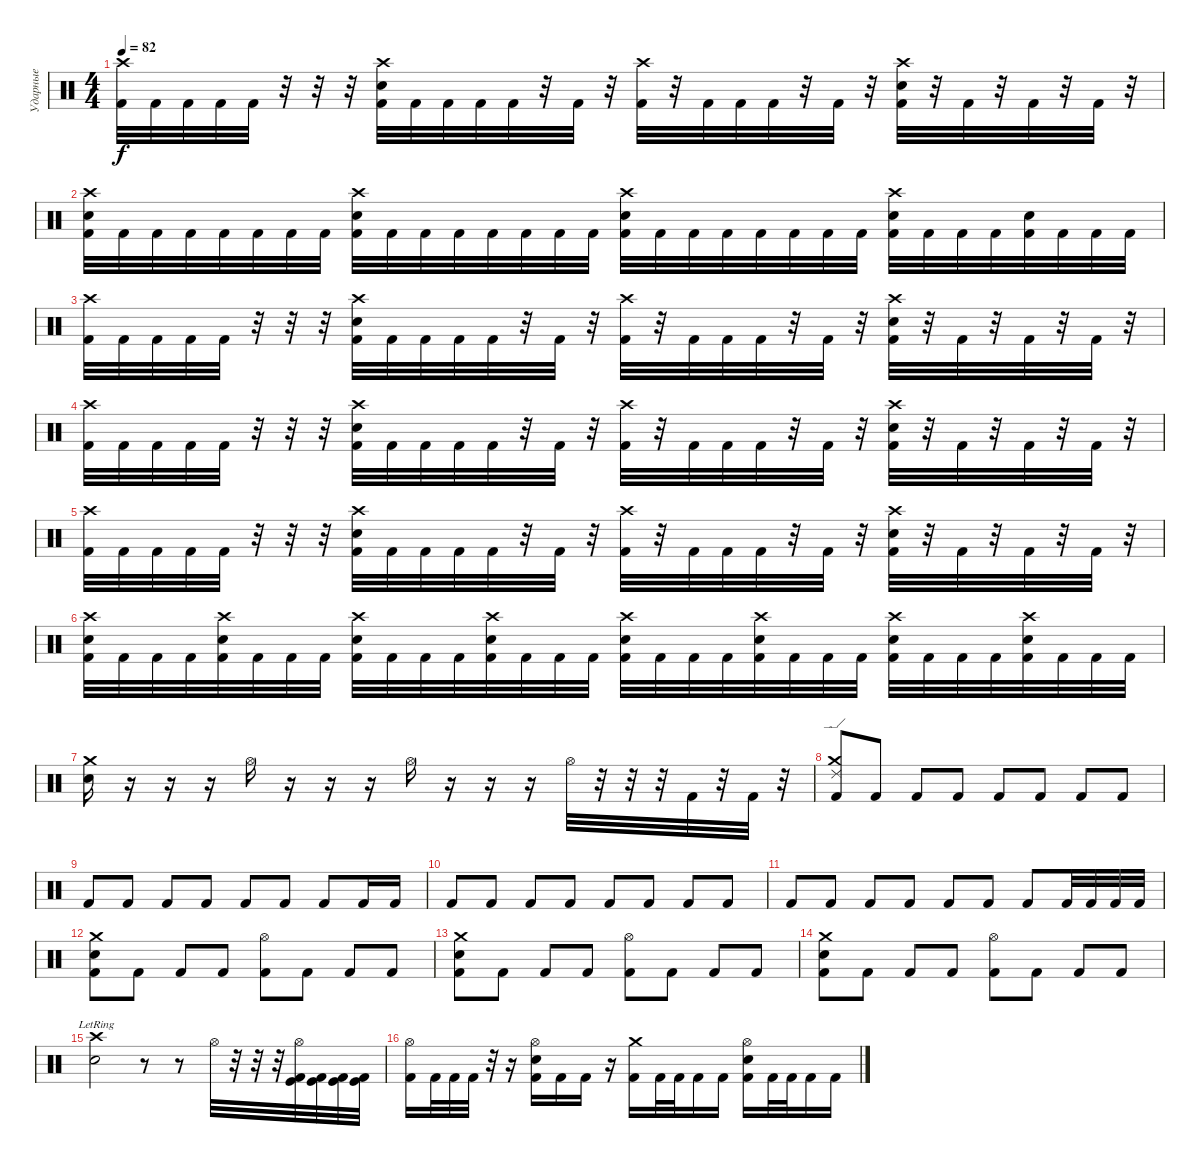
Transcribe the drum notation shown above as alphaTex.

\track ("Ударные" "Ударные") {instrument percussion}
\staff {score}
\articulation defaults
\ts (4 4)
\tempo 82
\clef neutral
\ks c
("Crash high (hit)" "Kick (hit) 2").32{dy f} "Kick (hit) 2".32 "Kick (hit) 2".32 "Kick (hit) 2".32 "Kick (hit) 2".32 r.32 r.32 r.32 ("Crash high (hit)" "Snare (hit) 2" "Kick (hit) 2").32 "Kick (hit) 2".32 "Kick (hit) 2".32 "Kick (hit) 2".32 "Kick (hit) 2".32 r.32 "Kick (hit) 2".32 r.32 ("Crash high (hit)" "Kick (hit) 2").32 r.32 "Kick (hit) 2".32 "Kick (hit) 2".32 "Kick (hit) 2".32 r.32 "Kick (hit) 2".32 r.32 ("Crash high (hit)" "Snare (hit) 2" "Kick (hit) 2").32 r.32 "Kick (hit) 2".32 r.32 "Kick (hit) 2".32 r.32 "Kick (hit) 2".32 r.32 |
("Crash high (hit)" "Snare (hit) 2" "Kick (hit) 2").32 "Kick (hit) 2".32 "Kick (hit) 2".32 "Kick (hit) 2".32 "Kick (hit) 2".32 "Kick (hit) 2".32 "Kick (hit) 2".32 "Kick (hit) 2".32 ("Crash high (hit)" "Snare (hit) 2" "Kick (hit) 2").32 "Kick (hit) 2".32 "Kick (hit) 2".32 "Kick (hit) 2".32 "Kick (hit) 2".32 "Kick (hit) 2".32 "Kick (hit) 2".32 "Kick (hit) 2".32 ("Crash high (hit)" "Snare (hit) 2" "Kick (hit) 2").32 "Kick (hit) 2".32 "Kick (hit) 2".32 "Kick (hit) 2".32 "Kick (hit) 2".32 "Kick (hit) 2".32 "Kick (hit) 2".32 "Kick (hit) 2".32 ("Crash high (hit)" "Snare (hit) 2" "Kick (hit) 2").32 "Kick (hit) 2".32 "Kick (hit) 2".32 "Kick (hit) 2".32 ("Snare (hit) 2" "Kick (hit) 2").32 "Kick (hit) 2".32 "Kick (hit) 2".32 "Kick (hit) 2".32 |
("Crash high (hit)" "Kick (hit) 2").32 "Kick (hit) 2".32 "Kick (hit) 2".32 "Kick (hit) 2".32 "Kick (hit) 2".32 r.32 r.32 r.32 ("Crash high (hit)" "Snare (hit) 2" "Kick (hit) 2").32 "Kick (hit) 2".32 "Kick (hit) 2".32 "Kick (hit) 2".32 "Kick (hit) 2".32 r.32 "Kick (hit) 2".32 r.32 ("Crash high (hit)" "Kick (hit) 2").32 r.32 "Kick (hit) 2".32 "Kick (hit) 2".32 "Kick (hit) 2".32 r.32 "Kick (hit) 2".32 r.32 ("Crash high (hit)" "Snare (hit) 2" "Kick (hit) 2").32 r.32 "Kick (hit) 2".32 r.32 "Kick (hit) 2".32 r.32 "Kick (hit) 2".32 r.32 |
("Crash high (hit)" "Kick (hit) 2").32 "Kick (hit) 2".32 "Kick (hit) 2".32 "Kick (hit) 2".32 "Kick (hit) 2".32 r.32 r.32 r.32 ("Crash high (hit)" "Snare (hit) 2" "Kick (hit) 2").32 "Kick (hit) 2".32 "Kick (hit) 2".32 "Kick (hit) 2".32 "Kick (hit) 2".32 r.32 "Kick (hit) 2".32 r.32 ("Crash high (hit)" "Kick (hit) 2").32 r.32 "Kick (hit) 2".32 "Kick (hit) 2".32 "Kick (hit) 2".32 r.32 "Kick (hit) 2".32 r.32 ("Crash high (hit)" "Snare (hit) 2" "Kick (hit) 2").32 r.32 "Kick (hit) 2".32 r.32 "Kick (hit) 2".32 r.32 "Kick (hit) 2".32 r.32 |
("Crash high (hit)" "Kick (hit) 2").32 "Kick (hit) 2".32 "Kick (hit) 2".32 "Kick (hit) 2".32 "Kick (hit) 2".32 r.32 r.32 r.32 ("Crash high (hit)" "Snare (hit) 2" "Kick (hit) 2").32 "Kick (hit) 2".32 "Kick (hit) 2".32 "Kick (hit) 2".32 "Kick (hit) 2".32 r.32 "Kick (hit) 2".32 r.32 ("Crash high (hit)" "Kick (hit) 2").32 r.32 "Kick (hit) 2".32 "Kick (hit) 2".32 "Kick (hit) 2".32 r.32 "Kick (hit) 2".32 r.32 ("Crash high (hit)" "Snare (hit) 2" "Kick (hit) 2").32 r.32 "Kick (hit) 2".32 r.32 "Kick (hit) 2".32 r.32 "Kick (hit) 2".32 r.32 |
("Crash high (hit)" "Snare (hit) 2" "Kick (hit) 2").32 "Kick (hit) 2".32 "Kick (hit) 2".32 "Kick (hit) 2".32 ("Crash high (hit)" "Snare (hit) 2" "Kick (hit) 2").32 "Kick (hit) 2".32 "Kick (hit) 2".32 "Kick (hit) 2".32 ("Crash high (hit)" "Snare (hit) 2" "Kick (hit) 2").32 "Kick (hit) 2".32 "Kick (hit) 2".32 "Kick (hit) 2".32 ("Crash high (hit)" "Snare (hit) 2" "Kick (hit) 2").32 "Kick (hit) 2".32 "Kick (hit) 2".32 "Kick (hit) 2".32 ("Crash high (hit)" "Snare (hit) 2" "Kick (hit) 2").32 "Kick (hit) 2".32 "Kick (hit) 2".32 "Kick (hit) 2".32 ("Crash high (hit)" "Snare (hit) 2" "Kick (hit) 2").32 "Kick (hit) 2".32 "Kick (hit) 2".32 "Kick (hit) 2".32 ("Crash high (hit)" "Snare (hit) 2" "Kick (hit) 2").32 "Kick (hit) 2".32 "Kick (hit) 2".32 "Kick (hit) 2".32 ("Crash high (hit)" "Snare (hit) 2" "Kick (hit) 2").32 "Kick (hit) 2".32 "Kick (hit) 2".32 "Kick (hit) 2".32 |
("Crash medium (hit)" "Snare (hit) 2").16 r.16 r.16 r.16 "Hi-Hat (open)".16 r.16 r.16 r.16 "Hi-Hat (open)".16 r.16 r.16 r.16 "Hi-Hat (open)".32 r.32 r.32 r.32 "Kick (hit) 2".32 r.32 "Kick (hit) 2".32 r.32 |
("Crash medium (hit)" "Ride (edge) 2" "Kick (hit) 2").8 "Kick (hit) 2".8 "Kick (hit) 2".8 "Kick (hit) 2".8 "Kick (hit) 2".8 "Kick (hit) 2".8 "Kick (hit) 2".8 "Kick (hit) 2".8 |
"Kick (hit) 2".8 "Kick (hit) 2".8 "Kick (hit) 2".8 "Kick (hit) 2".8 "Kick (hit) 2".8 "Kick (hit) 2".8 "Kick (hit) 2".8 "Kick (hit) 2".16 "Kick (hit) 2".16 |
"Kick (hit) 2".8 "Kick (hit) 2".8 "Kick (hit) 2".8 "Kick (hit) 2".8 "Kick (hit) 2".8 "Kick (hit) 2".8 "Kick (hit) 2".8 "Kick (hit) 2".8 |
"Kick (hit) 2".8 "Kick (hit) 2".8 "Kick (hit) 2".8 "Kick (hit) 2".8 "Kick (hit) 2".8 "Kick (hit) 2".8 "Kick (hit) 2".8 "Kick (hit) 2".32 "Kick (hit) 2".32 "Kick (hit) 2".32 "Kick (hit) 2".32 |
("Crash medium (hit)" "Snare (hit) 2" "Kick (hit) 2").8 "Kick (hit) 2".8 "Kick (hit) 2".8 "Kick (hit) 2".8 ("Hi-Hat (open)" "Kick (hit) 2").8 "Kick (hit) 2".8 "Kick (hit) 2".8 "Kick (hit) 2".8 |
("Crash medium (hit)" "Snare (hit) 2" "Kick (hit) 2").8 "Kick (hit) 2".8 "Kick (hit) 2".8 "Kick (hit) 2".8 ("Hi-Hat (open)" "Kick (hit) 2").8 "Kick (hit) 2".8 "Kick (hit) 2".8 "Kick (hit) 2".8 |
("Crash medium (hit)" "Snare (hit) 2" "Kick (hit) 2").8 "Kick (hit) 2".8 "Kick (hit) 2".8 "Kick (hit) 2".8 ("Hi-Hat (open)" "Kick (hit) 2").8 "Kick (hit) 2".8 "Kick (hit) 2".8 "Kick (hit) 2".8 |
("Crash high (hit)"{lr} "Snare (hit) 2").2 r.8 r.8 "Hi-Hat (open)".32 r.32 r.32 r.32 ("Hi-Hat (open)" "Kick (hit) 2" "Kick (hit)").32 ("Kick (hit) 2" "Kick (hit)").32 ("Kick (hit) 2" "Kick (hit)").32 ("Kick (hit) 2" "Kick (hit)").32 |
("Hi-Hat (open)" "Kick (hit) 2").16 "Kick (hit) 2".32 "Kick (hit) 2".32 "Kick (hit) 2".32 r.32 r.16 ("Hi-Hat (open)" "Snare (hit) 2" "Kick (hit) 2").16 "Kick (hit) 2".16 "Kick (hit) 2".16 r.16 ("Crash medium (hit)" "Kick (hit) 2").16 "Kick (hit) 2".32 "Kick (hit) 2".32 "Kick (hit) 2".16 "Kick (hit) 2".16 ("Hi-Hat (open)" "Snare (hit) 2" "Kick (hit) 2").16 "Kick (hit) 2".32 "Kick (hit) 2".32 "Kick (hit) 2".16 "Kick (hit) 2".16
